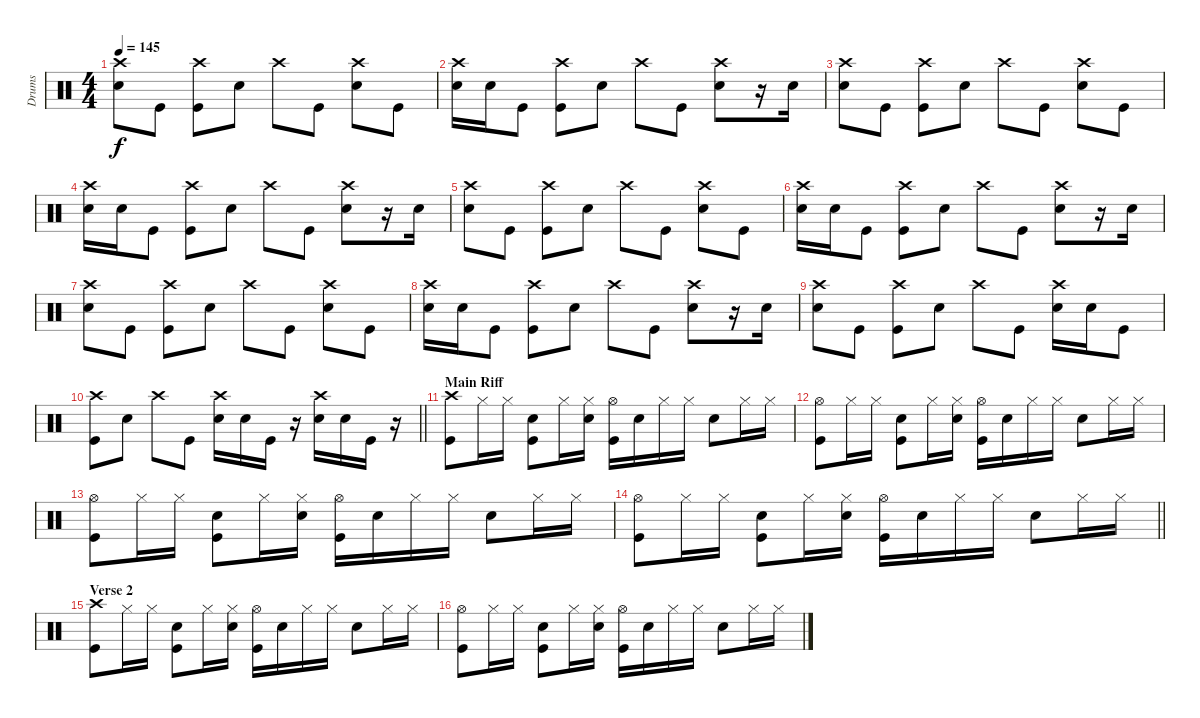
\track ("Drums" "Drums") {instrument percussion}
\staff {score}
\articulation defaults
\ts (4 4)
\tempo 145
\clef neutral
\ks c
("Crash high (hit)" "Electric Snare (hit)").8{dy f} "Kick (hit)".8 ("Crash high (hit)" "Kick (hit)").8 "Electric Snare (hit)".8 "Crash high (hit)".8 "Kick (hit)".8 ("Crash high (hit)" "Electric Snare (hit)").8 "Kick (hit)".8 |
("Crash high (hit)" "Electric Snare (hit)").16 "Electric Snare (hit)".16 "Kick (hit)".8 ("Crash high (hit)" "Kick (hit)").8 "Electric Snare (hit)".8 "Crash high (hit)".8 "Kick (hit)".8 ("Crash high (hit)" "Electric Snare (hit)").8 r.16 "Electric Snare (hit)".16 |
("Crash high (hit)" "Electric Snare (hit)").8 "Kick (hit)".8 ("Crash high (hit)" "Kick (hit)").8 "Electric Snare (hit)".8 "Crash high (hit)".8 "Kick (hit)".8 ("Crash high (hit)" "Electric Snare (hit)").8 "Kick (hit)".8 |
("Crash high (hit)" "Electric Snare (hit)").16 "Electric Snare (hit)".16 "Kick (hit)".8 ("Crash high (hit)" "Kick (hit)").8 "Electric Snare (hit)".8 "Crash high (hit)".8 "Kick (hit)".8 ("Crash high (hit)" "Electric Snare (hit)").8 r.16 "Electric Snare (hit)".16 |
("Crash high (hit)" "Electric Snare (hit)").8 "Kick (hit)".8 ("Crash high (hit)" "Kick (hit)").8 "Electric Snare (hit)".8 "Crash high (hit)".8 "Kick (hit)".8 ("Crash high (hit)" "Electric Snare (hit)").8 "Kick (hit)".8 |
("Crash high (hit)" "Electric Snare (hit)").16 "Electric Snare (hit)".16 "Kick (hit)".8 ("Crash high (hit)" "Kick (hit)").8 "Electric Snare (hit)".8 "Crash high (hit)".8 "Kick (hit)".8 ("Crash high (hit)" "Electric Snare (hit)").8 r.16 "Electric Snare (hit)".16 |
("Crash high (hit)" "Electric Snare (hit)").8 "Kick (hit)".8 ("Crash high (hit)" "Kick (hit)").8 "Electric Snare (hit)".8 "Crash high (hit)".8 "Kick (hit)".8 ("Crash high (hit)" "Electric Snare (hit)").8 "Kick (hit)".8 |
("Crash high (hit)" "Electric Snare (hit)").16 "Electric Snare (hit)".16 "Kick (hit)".8 ("Crash high (hit)" "Kick (hit)").8 "Electric Snare (hit)".8 "Crash high (hit)".8 "Kick (hit)".8 ("Crash high (hit)" "Electric Snare (hit)").8 r.16 "Electric Snare (hit)".16 |
("Crash high (hit)" "Electric Snare (hit)").8 "Kick (hit)".8 ("Crash high (hit)" "Kick (hit)").8 "Electric Snare (hit)".8 "Crash high (hit)".8 "Kick (hit)".8 ("Crash high (hit)" "Electric Snare (hit)").16 "Electric Snare (hit)".16 "Kick (hit)".8 |
\barLineRight lightlight
("Crash high (hit)" "Kick (hit)").8 "Electric Snare (hit)".8 "Crash high (hit)".8 "Kick (hit)".8 ("Crash high (hit)" "Electric Snare (hit)").16 "Electric Snare (hit)".16 "Kick (hit)".16 r.16 ("Crash high (hit)" "Electric Snare (hit)").16 "Electric Snare (hit)".16 "Kick (hit)".16 r.16 |
\section ("" "Main Riff")
("Crash high (hit)" "Kick (hit)").8 "Hi-Hat (closed)".16 "Hi-Hat (closed)".16 ("Electric Snare (hit)" "Kick (hit)").8 "Hi-Hat (closed)".16 ("Hi-Hat (closed)" "Electric Snare (hit)").16 ("Hi-Hat (open)" "Kick (hit)").16 "Electric Snare (hit)".16 "Hi-Hat (closed)".16 "Hi-Hat (closed)".16 "Electric Snare (hit)".8 "Hi-Hat (closed)".16 "Hi-Hat (closed)".16 |
("Hi-Hat (open)" "Kick (hit)").8 "Hi-Hat (closed)".16 "Hi-Hat (closed)".16 ("Electric Snare (hit)" "Kick (hit)").8 "Hi-Hat (closed)".16 ("Hi-Hat (closed)" "Electric Snare (hit)").16 ("Hi-Hat (open)" "Kick (hit)").16 "Electric Snare (hit)".16 "Hi-Hat (closed)".16 "Hi-Hat (closed)".16 "Electric Snare (hit)".8 "Hi-Hat (closed)".16 "Hi-Hat (closed)".16 |
("Hi-Hat (open)" "Kick (hit)").8 "Hi-Hat (closed)".16 "Hi-Hat (closed)".16 ("Electric Snare (hit)" "Kick (hit)").8 "Hi-Hat (closed)".16 ("Hi-Hat (closed)" "Electric Snare (hit)").16 ("Hi-Hat (open)" "Kick (hit)").16 "Electric Snare (hit)".16 "Hi-Hat (closed)".16 "Hi-Hat (closed)".16 "Electric Snare (hit)".8 "Hi-Hat (closed)".16 "Hi-Hat (closed)".16 |
\barLineRight lightlight
("Hi-Hat (open)" "Kick (hit)").8 "Hi-Hat (closed)".16 "Hi-Hat (closed)".16 ("Electric Snare (hit)" "Kick (hit)").8 "Hi-Hat (closed)".16 ("Hi-Hat (closed)" "Electric Snare (hit)").16 ("Hi-Hat (open)" "Kick (hit)").16 "Electric Snare (hit)".16 "Hi-Hat (closed)".16 "Hi-Hat (closed)".16 "Electric Snare (hit)".8 "Hi-Hat (closed)".16 "Hi-Hat (closed)".16 |
\section ("" "Verse 2")
("Crash high (hit)" "Kick (hit)").8 "Hi-Hat (closed)".16 "Hi-Hat (closed)".16 ("Electric Snare (hit)" "Kick (hit)").8 "Hi-Hat (closed)".16 ("Hi-Hat (closed)" "Electric Snare (hit)").16 ("Hi-Hat (open)" "Kick (hit)").16 "Electric Snare (hit)".16 "Hi-Hat (closed)".16 "Hi-Hat (closed)".16 "Electric Snare (hit)".8 "Hi-Hat (closed)".16 "Hi-Hat (closed)".16 |
("Hi-Hat (open)" "Kick (hit)").8 "Hi-Hat (closed)".16 "Hi-Hat (closed)".16 ("Electric Snare (hit)" "Kick (hit)").8 "Hi-Hat (closed)".16 ("Hi-Hat (closed)" "Electric Snare (hit)").16 ("Hi-Hat (open)" "Kick (hit)").16 "Electric Snare (hit)".16 "Hi-Hat (closed)".16 "Hi-Hat (closed)".16 "Electric Snare (hit)".8 "Hi-Hat (closed)".16 "Hi-Hat (closed)".16
